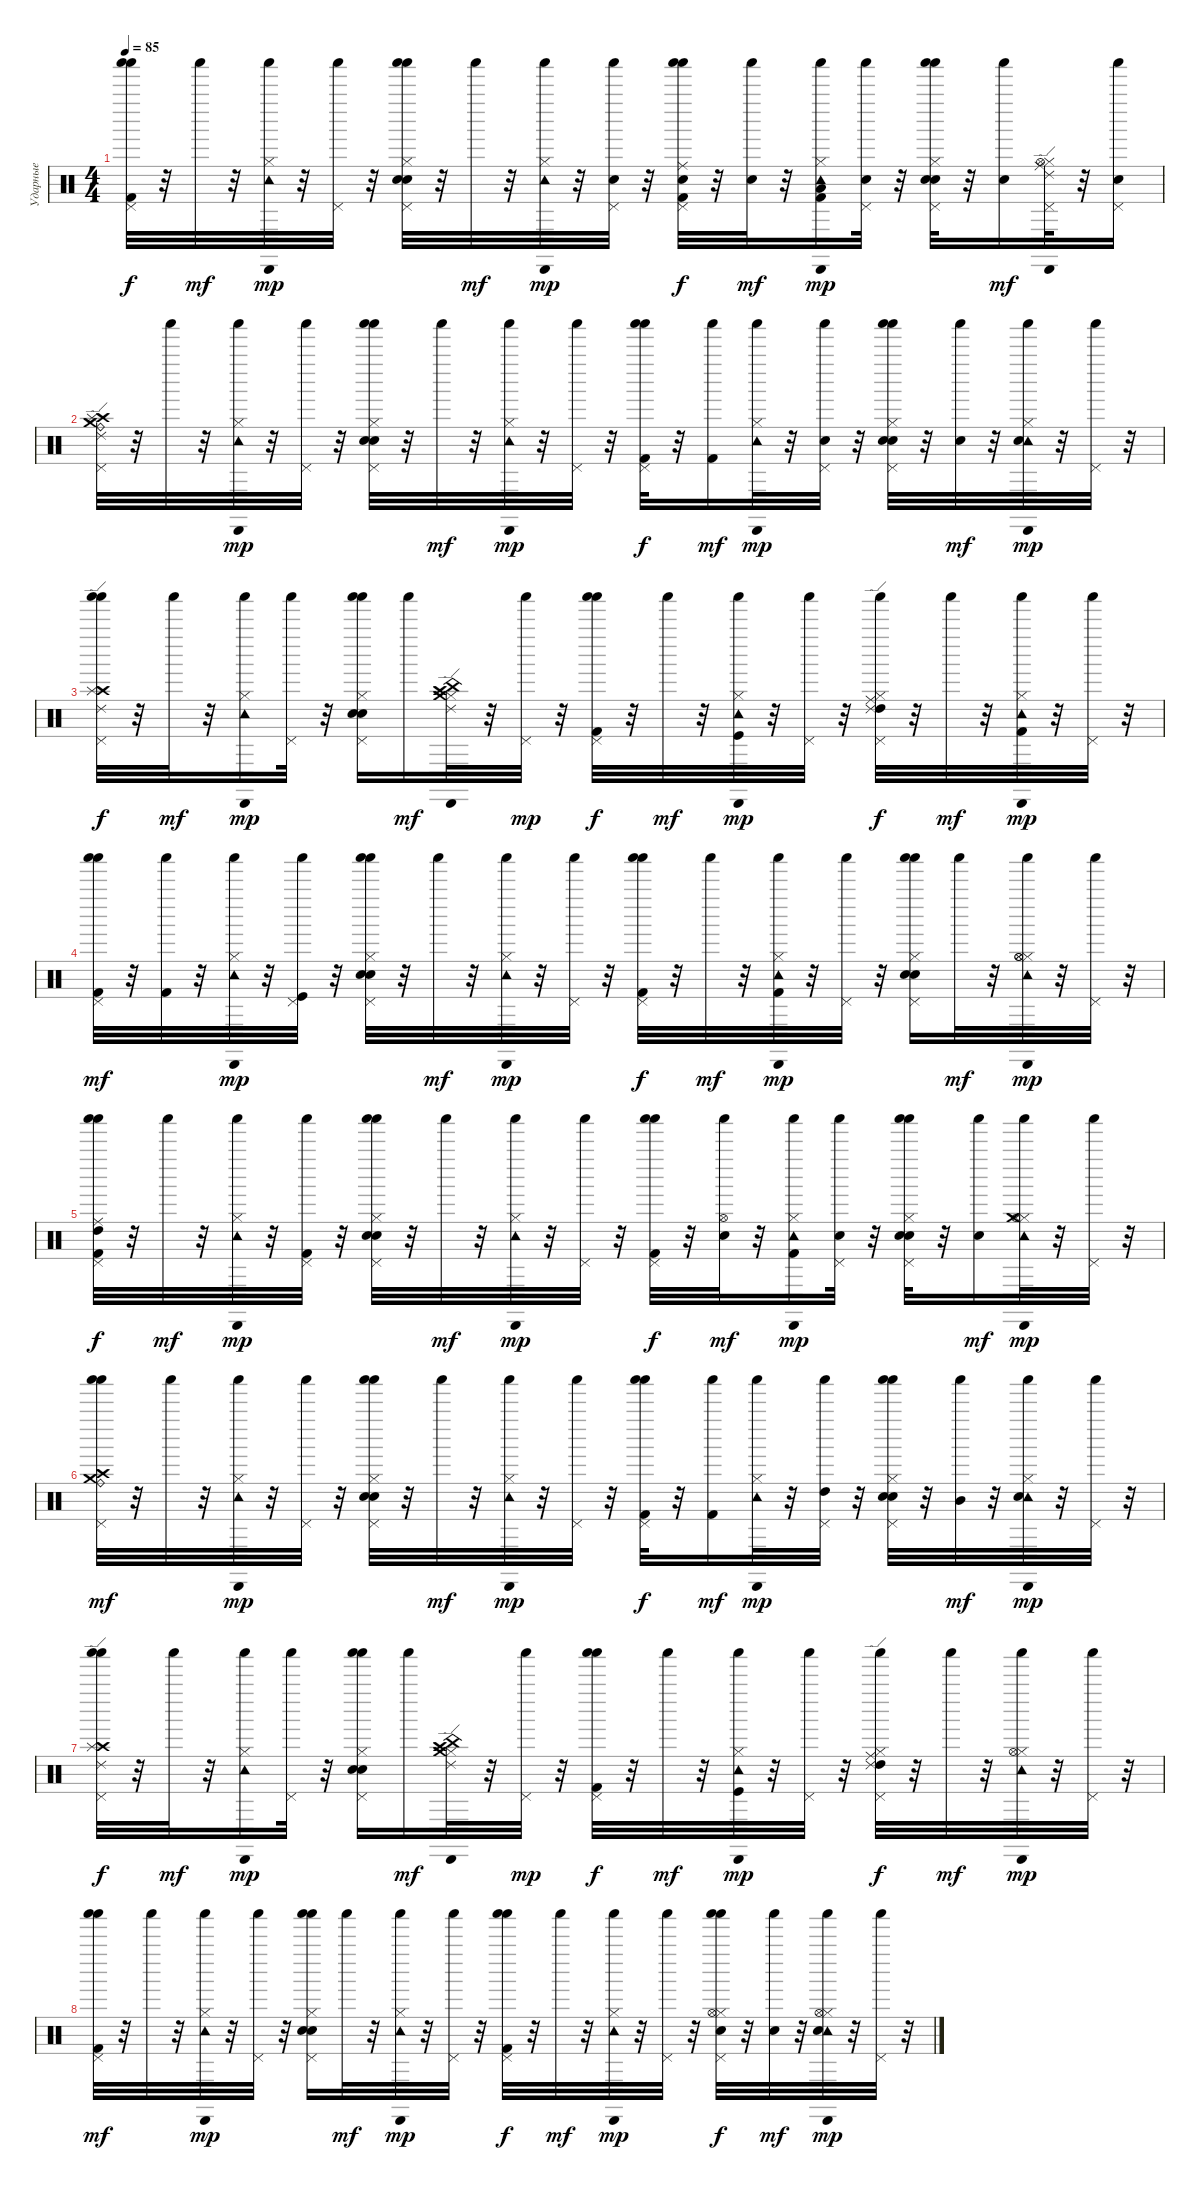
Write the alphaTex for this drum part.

\track ("Ударные" "Ударные") {instrument percussion}
\staff {score}
\articulation defaults
\ts (4 4)
\tempo 85
\clef neutral
\ks c
("Pedal Hi-Hat (hit)" "Shaker (hit)" "Shaker (hit)" "Kick (hit) 2").32{dy f} r.32 "Shaker (hit)".32{dy mf} r.32 ("Hi-Hat (closed)" "Cabasa (hit)" "Shaker (hit)" "Tambourine (hit)").32{dy mp} r.32 ("Pedal Hi-Hat (hit)" "Shaker (hit)").32 r.32 ("Hi-Hat (closed)" "Pedal Hi-Hat (hit)" "Shaker (hit)" "Shaker (hit)" "Snare (hit) 2" "Electric Snare (hit)").32 r.32 "Shaker (hit)".32{dy mf} r.32 ("Hi-Hat (closed)" "Cabasa (hit)" "Shaker (hit)" "Tambourine (hit)").32{dy mp} r.32 ("Pedal Hi-Hat (hit)" "Shaker (hit)" "Snare (hit) 2").32 r.32 ("Ride (middle)" "Pedal Hi-Hat (hit)" "Shaker (hit)" "Shaker (hit)" "Kick (hit) 2" "Snare (hit) 2").32{dy f} r.32 ("Shaker (hit)" "Snare (hit) 2").32{dy mf} r.32 ("Hi-Hat (closed)" "Cabasa (hit)" "Shaker (hit)" "Kick (hit) 2" "Low Tom (hit)" "Tambourine (hit)").16{dy mp} ("Pedal Hi-Hat (hit)" "Shaker (hit)" "Snare (hit) 2").32 r.32 ("Hi-Hat (closed)" "Pedal Hi-Hat (hit)" "Shaker (hit)" "Shaker (hit)" "Snare (hit) 2" "Electric Snare (hit)").32 r.32 ("Shaker (hit)" "Snare (hit) 2").16{dy mf} ("Ride (middle)" "Hi-Hat (closed)" "Hi-Hat (open)" "Ride (edge) 2" "Cabasa (hit)" "Pedal Hi-Hat (hit)").32 r.32 ("Pedal Hi-Hat (hit)" "Shaker (hit)" "Snare (hit) 2").16 |
("Ride (bell)" "Crash high (hit)" "Splash (hit)" "Ride (edge) 2" "Crash medium (hit)" "Pedal Hi-Hat (hit)").32 r.32 "Shaker (hit)".32 r.32 ("Hi-Hat (closed)" "Cabasa (hit)" "Shaker (hit)" "Tambourine (hit)").32{dy mp} r.32 ("Pedal Hi-Hat (hit)" "Shaker (hit)").32 r.32 ("Hi-Hat (closed)" "Pedal Hi-Hat (hit)" "Shaker (hit)" "Shaker (hit)" "Snare (hit) 2" "Electric Snare (hit)").32 r.32 "Shaker (hit)".32{dy mf} r.32 ("Hi-Hat (closed)" "Cabasa (hit)" "Shaker (hit)" "Tambourine (hit)").32{dy mp} r.32 ("Pedal Hi-Hat (hit)" "Shaker (hit)").32 r.32 ("Pedal Hi-Hat (hit)" "Shaker (hit)" "Shaker (hit)" "Kick (hit) 2").32{dy f} r.32 ("Shaker (hit)" "Kick (hit) 2").16{dy mf} ("Hi-Hat (closed)" "Cabasa (hit)" "Shaker (hit)" "Tambourine (hit)").32{dy mp} r.32 ("Pedal Hi-Hat (hit)" "Shaker (hit)" "Snare (hit) 2").32 r.32 ("Hi-Hat (closed)" "Pedal Hi-Hat (hit)" "Shaker (hit)" "Shaker (hit)" "Snare (hit) 2" "Electric Snare (hit)").32 r.32 ("Shaker (hit)" "Snare (hit) 2").32{dy mf} r.32 ("Hi-Hat (closed)" "Cabasa (hit)" "Shaker (hit)" "Tambourine (hit)" "Snare (hit) 2").32{dy mp} r.32 ("Pedal Hi-Hat (hit)" "Shaker (hit)").32 r.32 |
("Crash high (hit)" "Splash (hit)" "Ride (edge) 2" "Pedal Hi-Hat (hit)" "Shaker (hit)" "Shaker (hit)").32{dy f} r.32 "Shaker (hit)".32{dy mf} r.32 ("Hi-Hat (closed)" "Cabasa (hit)" "Shaker (hit)" "Tambourine (hit)").16{dy mp} ("Pedal Hi-Hat (hit)" "Shaker (hit)").32 r.32 ("Hi-Hat (closed)" "Pedal Hi-Hat (hit)" "Shaker (hit)" "Shaker (hit)" "Snare (hit) 2" "Electric Snare (hit)").16 "Shaker (hit)".16{dy mf} ("Hi-Hat (closed)" "Crash high (hit)" "China (hit)" "Ride (edge) 2" "Crash medium (hit)" "Cabasa (hit)").32 r.32 ("Pedal Hi-Hat (hit)" "Shaker (hit)").32{dy mp} r.32 ("Pedal Hi-Hat (hit)" "Shaker (hit)" "Shaker (hit)" "Kick (hit) 2").32{dy f} r.32 "Shaker (hit)".32{dy mf} r.32 ("Hi-Hat (closed)" "Cabasa (hit)" "Shaker (hit)" "Kick (hit)" "Tambourine (hit)").32{dy mp} r.32 ("Pedal Hi-Hat (hit)" "Shaker (hit)").32 r.32 ("High Tom (hit)" "Ride (middle)" "Hi-Hat (closed)" "Ride (edge) 2" "Pedal Hi-Hat (hit)" "Shaker (hit)").32{dy f} r.32 "Shaker (hit)".32{dy mf} r.32 ("Hi-Hat (closed)" "Cabasa (hit)" "Shaker (hit)" "Kick (hit) 2" "Tambourine (hit)").32{dy mp} r.32 ("Pedal Hi-Hat (hit)" "Shaker (hit)").32 r.32 |
("Pedal Hi-Hat (hit)" "Shaker (hit)" "Shaker (hit)" "Kick (hit) 2").32{dy mf} r.32 ("Shaker (hit)" "Kick (hit) 2").32 r.32 ("Hi-Hat (closed)" "Cabasa (hit)" "Shaker (hit)" "Tambourine (hit)").32{dy mp} r.32 ("Pedal Hi-Hat (hit)" "Shaker (hit)" "Kick (hit)").32 r.32 ("Hi-Hat (closed)" "Pedal Hi-Hat (hit)" "Shaker (hit)" "Shaker (hit)" "Snare (hit) 2" "Electric Snare (hit)").32 r.32 "Shaker (hit)".32{dy mf} r.32 ("Hi-Hat (closed)" "Cabasa (hit)" "Shaker (hit)" "Tambourine (hit)").32{dy mp} r.32 ("Pedal Hi-Hat (hit)" "Shaker (hit)").32 r.32 ("Pedal Hi-Hat (hit)" "Shaker (hit)" "Shaker (hit)" "Kick (hit) 2").32{dy f} r.32 "Shaker (hit)".32{dy mf} r.32 ("Hi-Hat (closed)" "Cabasa (hit)" "Shaker (hit)" "Kick (hit) 2" "Tambourine (hit)").32{dy mp} r.32 ("Pedal Hi-Hat (hit)" "Shaker (hit)").32 r.32 ("Hi-Hat (closed)" "Pedal Hi-Hat (hit)" "Shaker (hit)" "Shaker (hit)" "Snare (hit) 2" "Electric Snare (hit)").16 "Shaker (hit)".32{dy mf} r.32 ("Hi-Hat (closed)" "Hi-Hat (open)" "Hi-Hat (open)" "Cabasa (hit)" "Shaker (hit)" "Tambourine (hit)").32{dy mp} r.32 ("Pedal Hi-Hat (hit)" "Shaker (hit)").32 r.32 |
("High Tom (hit)" "Ride (middle)" "Pedal Hi-Hat (hit)" "Shaker (hit)" "Shaker (hit)" "Kick (hit) 2").32{dy f} r.32 "Shaker (hit)".32{dy mf} r.32 ("Hi-Hat (closed)" "Cabasa (hit)" "Shaker (hit)" "Tambourine (hit)").32{dy mp} r.32 ("Pedal Hi-Hat (hit)" "Shaker (hit)" "Kick (hit) 2").32 r.32 ("Hi-Hat (closed)" "Pedal Hi-Hat (hit)" "Shaker (hit)" "Shaker (hit)" "Snare (hit) 2" "Electric Snare (hit)").32 r.32 "Shaker (hit)".32{dy mf} r.32 ("Hi-Hat (closed)" "Cabasa (hit)" "Shaker (hit)" "Tambourine (hit)").32{dy mp} r.32 ("Pedal Hi-Hat (hit)" "Shaker (hit)").32 r.32 ("Pedal Hi-Hat (hit)" "Shaker (hit)" "Shaker (hit)" "Kick (hit) 2").32{dy f} r.32 ("Hi-Hat (open)" "Shaker (hit)" "Snare (hit) 2").32{dy mf} r.32 ("Hi-Hat (closed)" "Cabasa (hit)" "Shaker (hit)" "Kick (hit) 2" "Tambourine (hit)").16{dy mp} ("Pedal Hi-Hat (hit)" "Shaker (hit)" "Electric Snare (hit)").32 r.32 ("Hi-Hat (closed)" "Pedal Hi-Hat (hit)" "Shaker (hit)" "Shaker (hit)" "Snare (hit) 2" "Electric Snare (hit)").32 r.32 ("Shaker (hit)" "Snare (hit) 2").16{dy mf} ("Hi-Hat (closed)" "Hi-Hat (open)" "Crash medium (hit)" "Cabasa (hit)" "Shaker (hit)" "Tambourine (hit)").32{dy mp} r.32 ("Pedal Hi-Hat (hit)" "Shaker (hit)").32 r.32 |
("Ride (bell)" "Crash high (hit)" "Crash medium (hit)" "Pedal Hi-Hat (hit)" "Shaker (hit)" "Shaker (hit)").32{dy mf} r.32 "Shaker (hit)".32 r.32 ("Hi-Hat (closed)" "Cabasa (hit)" "Shaker (hit)" "Tambourine (hit)").32{dy mp} r.32 ("Pedal Hi-Hat (hit)" "Shaker (hit)").32 r.32 ("Hi-Hat (closed)" "Pedal Hi-Hat (hit)" "Shaker (hit)" "Shaker (hit)" "Snare (hit) 2" "Electric Snare (hit)").32 r.32 "Shaker (hit)".32{dy mf} r.32 ("Hi-Hat (closed)" "Cabasa (hit)" "Shaker (hit)" "Tambourine (hit)").32{dy mp} r.32 ("Pedal Hi-Hat (hit)" "Shaker (hit)").32 r.32 ("Pedal Hi-Hat (hit)" "Shaker (hit)" "Shaker (hit)" "Kick (hit) 2").32{dy f} r.32 ("Shaker (hit)" "Kick (hit) 2").16{dy mf} ("Hi-Hat (closed)" "Cabasa (hit)" "Shaker (hit)" "Tambourine (hit)").32{dy mp} r.32 ("High Tom (hit)" "Pedal Hi-Hat (hit)" "Shaker (hit)").32 r.32 ("Hi-Hat (closed)" "Pedal Hi-Hat (hit)" "Shaker (hit)" "Shaker (hit)" "Snare (hit) 2" "Electric Snare (hit)").32 r.32 ("Mid Tom (hit)" "Shaker (hit)").32{dy mf} r.32 ("Hi-Hat (closed)" "Cabasa (hit)" "Shaker (hit)" "Tambourine (hit)" "Snare (hit) 2").32{dy mp} r.32 ("Pedal Hi-Hat (hit)" "Shaker (hit)").32 r.32 |
("Crash high (hit)" "Splash (hit)" "Ride (edge) 2" "Pedal Hi-Hat (hit)" "Shaker (hit)" "Shaker (hit)").32{dy f} r.32 "Shaker (hit)".32{dy mf} r.32 ("Hi-Hat (closed)" "Cabasa (hit)" "Shaker (hit)" "Tambourine (hit)").16{dy mp} ("Pedal Hi-Hat (hit)" "Shaker (hit)").32 r.32 ("Hi-Hat (closed)" "Pedal Hi-Hat (hit)" "Shaker (hit)" "Shaker (hit)" "Snare (hit) 2" "Electric Snare (hit)").16 "Shaker (hit)".16{dy mf} ("Hi-Hat (closed)" "Crash high (hit)" "China (hit)" "Ride (edge) 2" "Crash medium (hit)" "Cabasa (hit)").32 r.32 ("Pedal Hi-Hat (hit)" "Shaker (hit)").32{dy mp} r.32 ("Pedal Hi-Hat (hit)" "Shaker (hit)" "Shaker (hit)" "Kick (hit) 2").32{dy f} r.32 "Shaker (hit)".32{dy mf} r.32 ("Hi-Hat (closed)" "Cabasa (hit)" "Shaker (hit)" "Kick (hit)" "Tambourine (hit)").32{dy mp} r.32 ("Pedal Hi-Hat (hit)" "Shaker (hit)").32 r.32 ("High Tom (hit)" "Ride (middle)" "Hi-Hat (closed)" "Ride (edge) 2" "Pedal Hi-Hat (hit)" "Shaker (hit)").32{dy f} r.32 "Shaker (hit)".32{dy mf} r.32 ("Hi-Hat (closed)" "Hi-Hat (open)" "Cabasa (hit)" "Shaker (hit)" "Tambourine (hit)").32{dy mp} r.32 ("Pedal Hi-Hat (hit)" "Shaker (hit)").32 r.32 |
("Pedal Hi-Hat (hit)" "Shaker (hit)" "Shaker (hit)" "Kick (hit) 2").32{dy mf} r.32 "Shaker (hit)".32 r.32 ("Hi-Hat (closed)" "Cabasa (hit)" "Shaker (hit)" "Tambourine (hit)").32{dy mp} r.32 ("Pedal Hi-Hat (hit)" "Shaker (hit)").32 r.32 ("Hi-Hat (closed)" "Pedal Hi-Hat (hit)" "Shaker (hit)" "Shaker (hit)" "Snare (hit) 2" "Electric Snare (hit)").16 "Shaker (hit)".32{dy mf} r.32 ("Hi-Hat (closed)" "Cabasa (hit)" "Shaker (hit)" "Tambourine (hit)").32{dy mp} r.32 ("Pedal Hi-Hat (hit)" "Shaker (hit)").32 r.32 ("Pedal Hi-Hat (hit)" "Shaker (hit)" "Shaker (hit)" "Kick (hit) 2").32{dy f} r.32 "Shaker (hit)".32{dy mf} r.32 ("Hi-Hat (closed)" "Cabasa (hit)" "Shaker (hit)" "Tambourine (hit)").32{dy mp} r.32 ("Pedal Hi-Hat (hit)" "Shaker (hit)").32 r.32 ("Hi-Hat (closed)" "Hi-Hat (open)" "Pedal Hi-Hat (hit)" "Shaker (hit)" "Shaker (hit)" "Snare (hit) 2").32{dy f} r.32 ("Shaker (hit)" "Snare (hit) 2").32{dy mf} r.32 ("Hi-Hat (closed)" "Hi-Hat (open)" "Cabasa (hit)" "Shaker (hit)" "Tambourine (hit)" "Snare (hit) 2").32{dy mp} r.32 ("Pedal Hi-Hat (hit)" "Shaker (hit)").32 r.32
